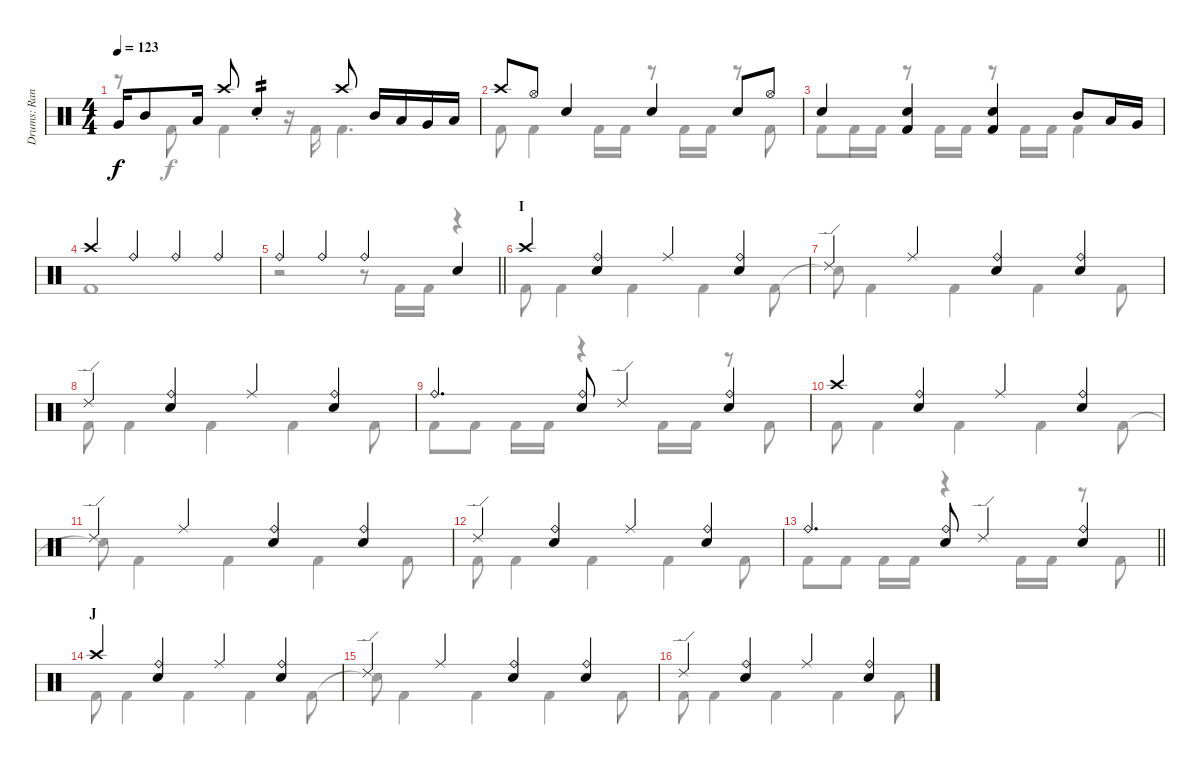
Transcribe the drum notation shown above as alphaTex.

\track ("Drums: Randy" "Drums: Ran") {instrument percussion}
\staff {score}
\articulation defaults
\voice
\ts (4 4)
\tempo 123
\clef neutral
\ks c "Very Low Tom (hit)".16{dy f} "Mid Tom (hit)".8 "Low Tom (hit)".16 "Crash high (hit)".8 "Snare (hit) 2"{st}.4{tp 2} "Crash high (hit)".8 "Mid Tom (hit)".16 "Low Tom (hit)".16 "Very Low Tom (hit)".16 "Low Floor Tom (hit)".16
|
"Crash high (hit)".8 "Hi-Hat (open)".8 "Snare (hit) 2".4 "Snare (hit) 2".4 "Snare (hit) 2".8 "Hi-Hat (open)".8 |
"Snare (hit) 2".4 ("Snare (hit) 2" "Kick (hit) 2").4 ("Snare (hit) 2" "Kick (hit) 2").4 "Mid Tom (hit)".8 "Low Tom (hit)".16 "Very Low Tom (hit)".16 |
"Crash high (hit)".4 "Ride (bell)".4 "Ride (bell)".4 "Ride (bell)".4 |
\barLineRight lightlight "Ride (bell)".4 "Ride (bell)".4 "Ride (bell)".4 "Snare (hit) 2".4
|
\section ("" "I")
"Crash high (hit)".4 ("Ride (bell)" "Snare (hit) 2").4 "Ride (middle)".4 ("Ride (bell)" "Snare (hit) 2").4 |
"Ride (edge) 2".4 "Ride (middle)".4 ("Ride (bell)" "Snare (hit) 2").4 ("Ride (bell)" "Snare (hit) 2").4 |
"Ride (edge) 2".4 ("Ride (bell)" "Snare (hit) 2").4 "Ride (middle)".4 ("Ride (bell)" "Snare (hit) 2").4 |
"Ride (bell)".4{d} ("Ride (bell)" "Snare (hit) 2").8 "Ride (edge) 2".4 ("Ride (bell)" "Snare (hit) 2").4 |
"Crash high (hit)".4 ("Ride (bell)" "Snare (hit) 2").4 "Ride (middle)".4 ("Ride (bell)" "Snare (hit) 2").4 |
"Ride (edge) 2".4 "Ride (middle)".4 ("Ride (bell)" "Snare (hit) 2").4 ("Ride (bell)" "Snare (hit) 2").4 |
"Ride (edge) 2".4 ("Ride (bell)" "Snare (hit) 2").4 "Ride (middle)".4 ("Ride (bell)" "Snare (hit) 2").4 |
\barLineRight lightlight "Ride (bell)".4{d}
("Ride (bell)" "Snare (hit) 2").8 "Ride (edge) 2".4 ("Ride (bell)" "Snare (hit) 2").4 |
\section ("" "J")
"Crash high (hit)".4 ("Ride (bell)" "Snare (hit) 2").4 "Ride (middle)".4 ("Ride (bell)" "Snare (hit) 2").4 |
"Ride (edge) 2".4 "Ride (middle)".4 ("Ride (bell)" "Snare (hit) 2").4 ("Ride (bell)" "Snare (hit) 2").4 |
"Ride (edge) 2".4 ("Ride (bell)" "Snare (hit) 2").4 "Ride (middle)".4 ("Ride (bell)" "Snare (hit) 2").4
\voice
\clef neutral
\ottava regular
\simile none
\ks c
r.8{dy f} "Kick (hit) 2".8 "Kick (hit) 2".4 r.16 "Kick (hit) 2".16 "Kick (hit) 2".4{d} |
"Kick (hit) 2".8 "Kick (hit) 2".4 "Kick (hit) 2".16 "Kick (hit) 2".16 r.8 "Kick (hit) 2".16 "Kick (hit) 2".16 r.8 "Kick (hit) 2".8 |
"Kick (hit) 2".8 "Kick (hit) 2".16 "Kick (hit) 2".16 r.8 "Kick (hit) 2".16 "Kick (hit) 2".16 r.8 "Kick (hit) 2".16 "Kick (hit) 2".16 "Kick (hit) 2".4 |
"Kick (hit) 2".1 |
\barLineRight lightlight
r.2 r.8 "Kick (hit) 2".16 "Kick (hit) 2".16 r.4 |
"Kick (hit) 2".8 "Kick (hit) 2".4 "Kick (hit) 2".4 "Kick (hit) 2".4 "Kick (hit) 2".8 |
"Snare (hit)"{t}.8 "Kick (hit) 2".4 "Kick (hit) 2".4 "Kick (hit) 2".4 "Kick (hit) 2".8 |
"Kick (hit) 2".8 "Kick (hit) 2".4 "Kick (hit) 2".4 "Kick (hit) 2".4 "Kick (hit) 2".8 |
"Kick (hit) 2".8 "Kick (hit) 2".8 "Kick (hit) 2".16 "Kick (hit) 2".16 r.4 "Kick (hit) 2".16 "Kick (hit) 2".16 r.8 "Kick (hit) 2".8 |
"Kick (hit) 2".8 "Kick (hit) 2".4 "Kick (hit) 2".4 "Kick (hit) 2".4 "Kick (hit) 2".8 |
"Snare (hit)"{t}.8 "Kick (hit) 2".4 "Kick (hit) 2".4 "Kick (hit) 2".4 "Kick (hit) 2".8 |
"Kick (hit) 2".8 "Kick (hit) 2".4 "Kick (hit) 2".4 "Kick (hit) 2".4 "Kick (hit) 2".8 |
\barLineRight lightlight "Kick (hit) 2".8 "Kick (hit) 2".8 "Kick (hit) 2".16 "Kick (hit) 2".16
r.4 "Kick (hit) 2".16 "Kick (hit) 2".16 r.8 "Kick (hit) 2".8 |
"Kick (hit) 2".8 "Kick (hit) 2".4 "Kick (hit) 2".4 "Kick (hit) 2".4 "Kick (hit) 2".8 |
"Snare (hit)"{t}.8 "Kick (hit) 2".4 "Kick (hit) 2".4 "Kick (hit) 2".4 "Kick (hit) 2".8 |
"Kick (hit) 2".8 "Kick (hit) 2".4 "Kick (hit) 2".4 "Kick (hit) 2".4 "Kick (hit) 2".8
